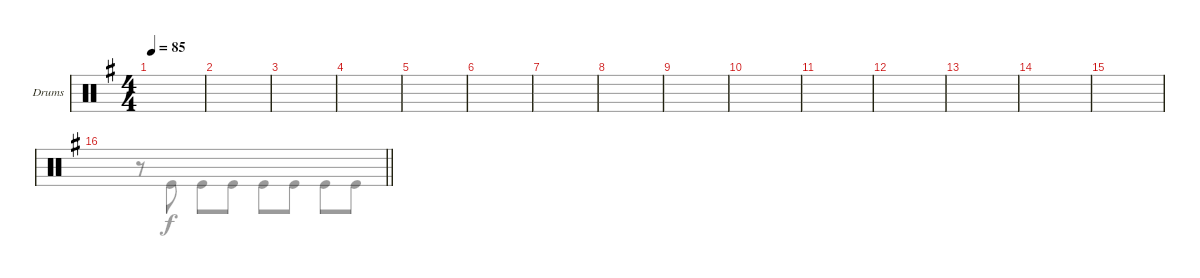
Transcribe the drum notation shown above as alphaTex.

\defaultSystemsLayout 4
\bracketExtendMode groupsimilarinstruments
\firstSystemTrackNameOrientation horizontal
\otherSystemsTrackNameOrientation horizontal
\track ("Drumkit" "Drums") {instrument percussion}
\staff {score}
\articulation defaults
\voice
\ts (4 4)
\scale
0.549714
\tempo 85
\accidentals auto
\clef neutral
\ottava regular
\simile none
\ks eminor
|
\scale
0.450142 |
\scale
0.523025 |
\scale
0.477006 |
\scale
0.537865 |
\scale
0.462129 |
\scale
0.527312 |
\scale
0.472734 |
\scale
0.512857 |
\scale
0.487179 |
\scale
0.524286 |
\scale
0.475783 |
\scale
0.53 |
\scale
0.470085 |
\scale
0.511846 |
\scale
0.488449
\barLineRight lightlight
\voice
\clef neutral
\ottava regular
\simile none
\ks eminor
|
|
|
|
|
|
|
|
|
|
|
|
|
|
|
\barLineRight lightlight
r.8 "Kick (hit)".8 "Kick (hit)".8 "Kick (hit)".8 "Kick (hit)".8 "Kick (hit)".8 "Kick (hit)".8 "Kick (hit)".8
